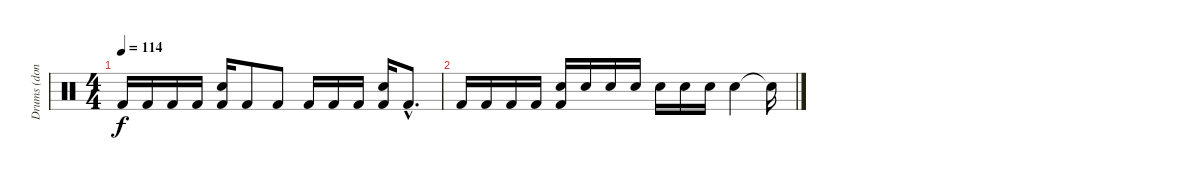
\track ("Drums (done badly)" "Drums (don") {instrument percussion}
\staff {score}
\articulation defaults
\ts (4 4)
\tempo 114
\clef neutral
\ks c "Kick (hit) 2".16{dy f} "Kick (hit) 2".16 "Kick (hit) 2".16 "Kick (hit) 2".16
("Snare (hit) 2" "Kick (hit) 2").16 "Kick (hit) 2".8 "Kick (hit) 2".8 "Kick (hit) 2".16 "Kick (hit) 2".16 "Kick (hit) 2".16 ("Snare (hit) 2" "Kick (hit) 2").16 "Kick (hit) 2"{hac}.8{d} |
"Kick (hit) 2".16 "Kick (hit) 2".16 "Kick (hit) 2".16 "Kick (hit) 2".16 ("Snare (hit) 2" "Kick (hit) 2").16 "Snare (hit) 2".16 "Snare (hit) 2".16 "Snare (hit) 2".16 "Snare (hit) 2".16 "Snare (hit) 2".16 "Snare (hit) 2".16 "Snare (hit) 2".4 "Snare (hit)"{t}.16
